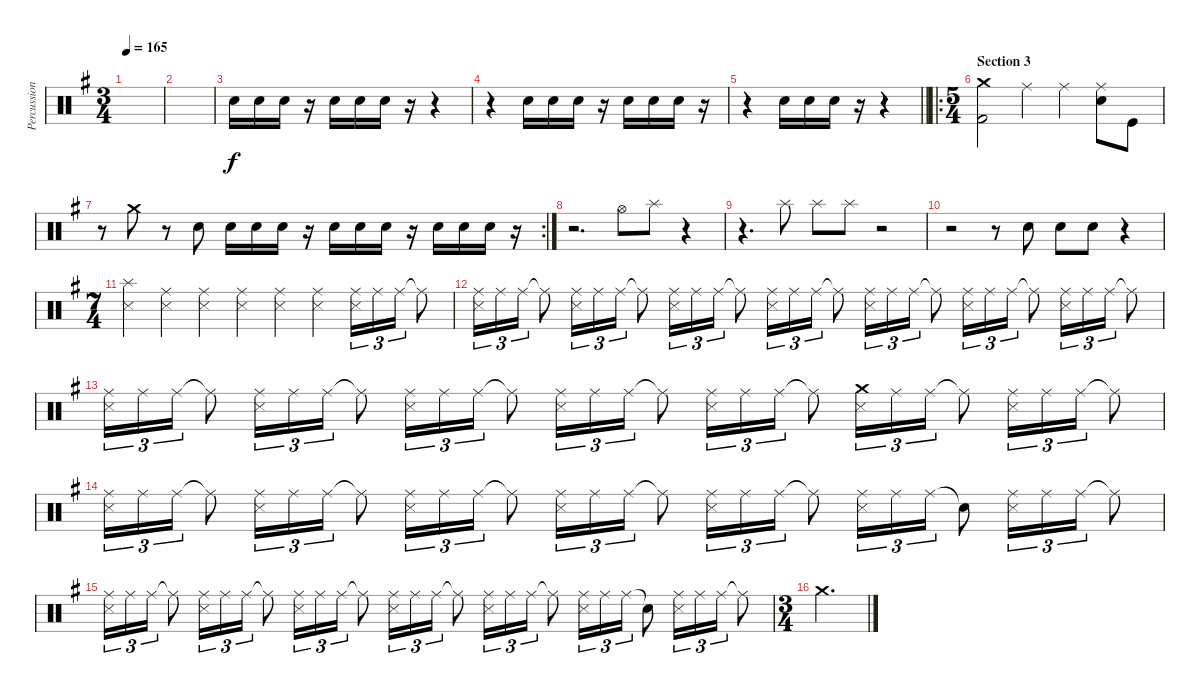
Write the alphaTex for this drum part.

\track ("Percussion" "Percussion") {instrument percussion}
\staff {score}
\articulation defaults
\ts (3 4)
\tempo 165
\clef neutral
\ks g
|
|
"Snare (hit) 2".16 "Snare (hit) 2".16 "Snare (hit) 2".16 r.16 "Snare (hit) 2".16 "Snare (hit) 2".16 "Snare (hit) 2".16 r.16 r.4 |
r.4 "Snare (hit) 2".16 "Snare (hit) 2".16 "Snare (hit) 2".16 r.16 "Snare (hit) 2".16 "Snare (hit) 2".16 "Snare (hit) 2".16 r.16 |
\barLineRight lightlight
r.4 "Snare (hit) 2".16 "Snare (hit) 2".16 "Snare (hit) 2".16 r.16 r.4 |
\ro
\ts (5 4)
\section ("" "Section 3")
("Crash medium (hit)" "Kick (hit) 2").2 "Ride (middle)".4 "Ride (middle)".4 ("Ride (middle)" "Snare (hit) 2").8 "Kick (hit)".8 |
\rc 2
r.8 "Crash medium (hit)".8 r.8 "Snare (hit) 2".8 "Snare (hit) 2".16 "Snare (hit) 2".16 "Snare (hit) 2".16 r.16 "Snare (hit) 2".16 "Snare (hit) 2".16 "Snare (hit) 2".16 r.16 "Snare (hit) 2".16 "Snare (hit) 2".16 "Snare (hit) 2".16 r.16 |
r.2{d} "Hi-Hat (open)".8 "Splash (hit)".8 r.4 |
r.4{d} "Splash (hit)".8 "Splash (hit)".8 "Splash (hit)".8 r.2 |
r.2 r.8 "Snare (hit) 2".8 "Snare (hit) 2".8 "Snare (hit) 2".8 r.4 |
\ts (7 4)
("Splash (hit)" "Snare (side stick) 3").4 ("Ride (middle)" "Snare (side stick) 3").4 ("Ride (middle)" "Snare (side stick) 3").4 ("Ride (middle)" "Snare (side stick) 3").4 ("Ride (middle)" "Snare (side stick) 3").4 ("Ride (middle)" "Snare (side stick) 3").4 ("Ride (middle)" "Snare (side stick) 3").16{tu (3 2)} "Ride (middle)".16{tu (3 2)} "Ride (middle)".16{tu (3 2)} "Ride (middle)"{t}.8 |
("Ride (middle)" "Snare (side stick) 3").16{tu (3 2)} "Ride (middle)".16{tu (3 2)} "Ride (middle)".16{tu (3 2)} "Ride (middle)"{t}.8 ("Ride (middle)" "Snare (side stick) 3").16{tu (3 2)} "Ride (middle)".16{tu (3 2)} "Ride (middle)".16{tu (3 2)} "Ride (middle)"{t}.8 ("Ride (middle)" "Snare (side stick) 3").16{tu (3 2)} "Ride (middle)".16{tu (3 2)} "Ride (middle)".16{tu (3 2)} "Ride (middle)"{t}.8 ("Ride (middle)" "Snare (side stick) 3").16{tu (3 2)} "Ride (middle)".16{tu (3 2)} "Ride (middle)".16{tu (3 2)} "Ride (middle)"{t}.8 ("Ride (middle)" "Snare (side stick) 3").16{tu (3 2)} "Ride (middle)".16{tu (3 2)} "Ride (middle)".16{tu (3 2)} "Ride (middle)"{t}.8 ("Ride (middle)" "Snare (side stick) 3").16{tu (3 2)} "Ride (middle)".16{tu (3 2)} "Ride (middle)".16{tu (3 2)} "Ride (middle)"{t}.8 ("Ride (middle)" "Snare (side stick) 3").16{tu (3 2)} "Ride (middle)".16{tu (3 2)} "Ride (middle)".16{tu (3 2)} "Ride (middle)"{t}.8 |
("Ride (middle)" "Snare (side stick) 3").16{tu (3 2)} "Ride (middle)".16{tu (3 2)} "Ride (middle)".16{tu (3 2)} "Ride (middle)"{t}.8 ("Ride (middle)" "Snare (side stick) 3").16{tu (3 2)} "Ride (middle)".16{tu (3 2)} "Ride (middle)".16{tu (3 2)} "Ride (middle)"{t}.8 ("Ride (middle)" "Snare (side stick) 3").16{tu (3 2)} "Ride (middle)".16{tu (3 2)} "Ride (middle)".16{tu (3 2)} "Ride (middle)"{t}.8 ("Ride (middle)" "Snare (side stick) 3").16{tu (3 2)} "Ride (middle)".16{tu (3 2)} "Ride (middle)".16{tu (3 2)} "Ride (middle)"{t}.8 ("Ride (middle)" "Snare (side stick) 3").16{tu (3 2)} "Ride (middle)".16{tu (3 2)} "Ride (middle)".16{tu (3 2)} "Ride (middle)"{t}.8 ("Crash medium (hit)" "Snare (side stick) 3").16{tu (3 2)} "Ride (middle)".16{tu (3 2)} "Ride (middle)".16{tu (3 2)} "Ride (middle)"{t}.8 ("Ride (middle)" "Snare (side stick) 3").16{tu (3 2)} "Ride (middle)".16{tu (3 2)} "Ride (middle)".16{tu (3 2)} "Ride (middle)"{t}.8 |
("Ride (middle)" "Snare (side stick) 3").16{tu (3 2)} "Ride (middle)".16{tu (3 2)} "Ride (middle)".16{tu (3 2)} "Ride (middle)"{t}.8 ("Ride (middle)" "Snare (side stick) 3").16{tu (3 2)} "Ride (middle)".16{tu (3 2)} "Ride (middle)".16{tu (3 2)} "Ride (middle)"{t}.8 ("Ride (middle)" "Snare (side stick) 3").16{tu (3 2)} "Ride (middle)".16{tu (3 2)} "Ride (middle)".16{tu (3 2)} "Ride (middle)"{t}.8 ("Ride (middle)" "Snare (side stick) 3").16{tu (3 2)} "Ride (middle)".16{tu (3 2)} "Ride (middle)".16{tu (3 2)} "Ride (middle)"{t}.8 ("Ride (middle)" "Snare (side stick) 3").16{tu (3 2)} "Ride (middle)".16{tu (3 2)} "Ride (middle)".16{tu (3 2)} "Ride (middle)"{t}.8 ("Ride (middle)" "Snare (side stick) 3").16{tu (3 2)} "Ride (middle)".16{tu (3 2)} "Ride (middle)".16{tu (3 2)} "Snare (hit)"{t}.8 ("Ride (middle)" "Snare (side stick) 3").16{tu (3 2)} "Ride (middle)".16{tu (3 2)} "Ride (middle)".16{tu (3 2)} "Ride (middle)"{t}.8 |
("Ride (middle)" "Snare (side stick) 3").16{tu (3 2)} "Ride (middle)".16{tu (3 2)} "Ride (middle)".16{tu (3 2)} "Ride (middle)"{t}.8 ("Ride (middle)" "Snare (side stick) 3").16{tu (3 2)} "Ride (middle)".16{tu (3 2)} "Ride (middle)".16{tu (3 2)} "Ride (middle)"{t}.8 ("Ride (middle)" "Snare (side stick) 3").16{tu (3 2)} "Ride (middle)".16{tu (3 2)} "Ride (middle)".16{tu (3 2)} "Ride (middle)"{t}.8 ("Ride (middle)" "Snare (side stick) 3").16{tu (3 2)} "Ride (middle)".16{tu (3 2)} "Ride (middle)".16{tu (3 2)} "Ride (middle)"{t}.8 ("Ride (middle)" "Snare (side stick) 3").16{tu (3 2)} "Ride (middle)".16{tu (3 2)} "Ride (middle)".16{tu (3 2)} "Ride (middle)"{t}.8 ("Ride (middle)" "Snare (side stick) 3").16{tu (3 2)} "Ride (middle)".16{tu (3 2)} "Ride (middle)".16{tu (3 2)} "Snare (hit)"{t}.8 ("Ride (middle)" "Snare (side stick) 3").16{tu (3 2)} "Ride (middle)".16{tu (3 2)} "Ride (middle)".16{tu (3 2)} "Ride (middle)"{t}.8 |
\ts (3 4)
"Crash medium (hit)".2{d}
